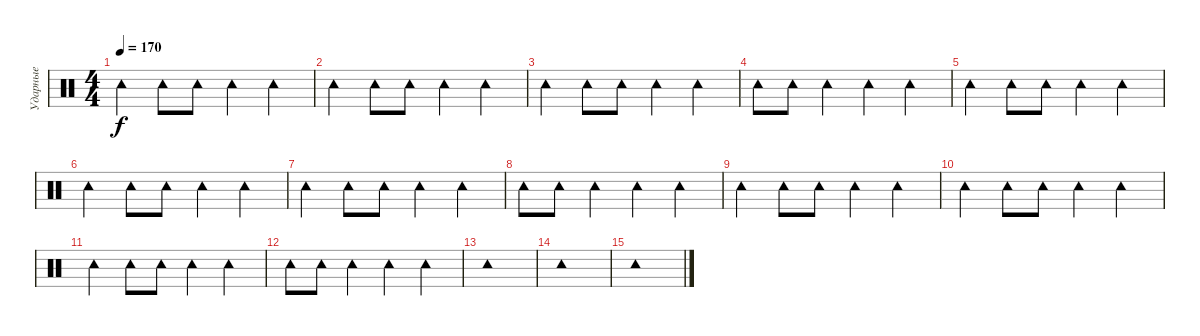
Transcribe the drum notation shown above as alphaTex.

\track ("Ударные" "Ударные") {instrument percussion}
\staff {score}
\articulation defaults
\ts (4 4)
\tempo 170
\clef neutral
\ks c "Tambourine (hit)".4{dy f} "Tambourine (hit)".8 "Tambourine (hit)".8 "Tambourine (hit)".4 "Tambourine (hit)".4
|
"Tambourine (hit)".4 "Tambourine (hit)".8 "Tambourine (hit)".8 "Tambourine (hit)".4 "Tambourine (hit)".4 |
"Tambourine (hit)".4 "Tambourine (hit)".8 "Tambourine (hit)".8 "Tambourine (hit)".4 "Tambourine (hit)".4 |
"Tambourine (hit)".8 "Tambourine (hit)".8 "Tambourine (hit)".4 "Tambourine (hit)".4 "Tambourine (hit)".4 |
"Tambourine (hit)".4 "Tambourine (hit)".8 "Tambourine (hit)".8 "Tambourine (hit)".4 "Tambourine (hit)".4 |
"Tambourine (hit)".4 "Tambourine (hit)".8 "Tambourine (hit)".8 "Tambourine (hit)".4 "Tambourine (hit)".4 |
"Tambourine (hit)".4 "Tambourine (hit)".8 "Tambourine (hit)".8 "Tambourine (hit)".4 "Tambourine (hit)".4 |
"Tambourine (hit)".8 "Tambourine (hit)".8 "Tambourine (hit)".4 "Tambourine (hit)".4 "Tambourine (hit)".4 |
"Tambourine (hit)".4 "Tambourine (hit)".8 "Tambourine (hit)".8 "Tambourine (hit)".4 "Tambourine (hit)".4 |
"Tambourine (hit)".4 "Tambourine (hit)".8 "Tambourine (hit)".8 "Tambourine (hit)".4 "Tambourine (hit)".4 |
"Tambourine (hit)".4 "Tambourine (hit)".8 "Tambourine (hit)".8 "Tambourine (hit)".4 "Tambourine (hit)".4 |
"Tambourine (hit)".8 "Tambourine (hit)".8 "Tambourine (hit)".4 "Tambourine (hit)".4 "Tambourine (hit)".4 |
"Tambourine (hit)".1 |
"Tambourine (hit)".1 |
"Tambourine (hit)".1
